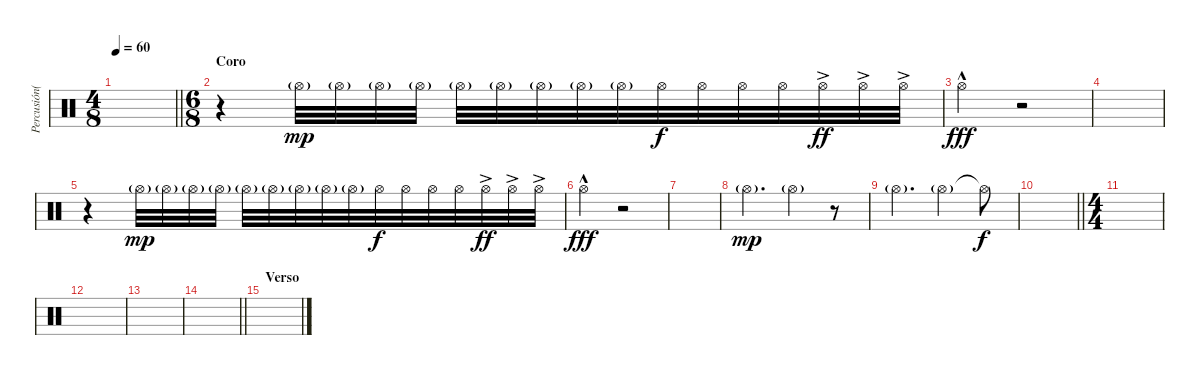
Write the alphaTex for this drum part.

\track ("Percusión(Sebastián)" "Percusión(") {instrument percussion}
\staff {score}
\articulation defaults
\ts (4 8)
\section ("" "")
\tempo 60
\clef neutral
\barLineRight lightlight
\ks c
|
\ts (6 8)
\section ("" "Coro")
r.4 "Hi-Hat (open)"{g}.32{dy mp} "Hi-Hat (open)"{g}.32 "Hi-Hat (open)"{g}.32 "Hi-Hat (open)"{g}.32 "Hi-Hat (open)"{g}.32 "Hi-Hat (open)"{g}.32 "Hi-Hat (open)"{g}.32 "Hi-Hat (open)"{g}.32 "Hi-Hat (open)"{g}.32 "Hi-Hat (open)".32{dy f} "Hi-Hat (open)".32 "Hi-Hat (open)".32 "Hi-Hat (open)".32 "Hi-Hat (open)"{ac}.32{dy ff} "Hi-Hat (open)"{ac}.32 "Hi-Hat (open)"{ac}.32 |
"Hi-Hat (open)"{hac}.4{dy fff} r.2 |
|
r.4 "Hi-Hat (open)"{g}.32{dy mp} "Hi-Hat (open)"{g}.32 "Hi-Hat (open)"{g}.32 "Hi-Hat (open)"{g}.32 "Hi-Hat (open)"{g}.32 "Hi-Hat (open)"{g}.32 "Hi-Hat (open)"{g}.32 "Hi-Hat (open)"{g}.32 "Hi-Hat (open)"{g}.32 "Hi-Hat (open)".32{dy f} "Hi-Hat (open)".32 "Hi-Hat (open)".32 "Hi-Hat (open)".32 "Hi-Hat (open)"{ac}.32{dy ff} "Hi-Hat (open)"{ac}.32 "Hi-Hat (open)"{ac}.32 |
"Hi-Hat (open)"{hac}.4{dy fff} r.2 |
|
"Hi-Hat (open)"{g}.4{d dy mp} "Hi-Hat (open)"{g}.4 r.8 |
"Hi-Hat (open)"{g}.4{d} "Hi-Hat (open)"{g}.4 "Hi-Hat (open)"{t}.8{dy f} |
\barLineRight lightlight
|
\ts (4 4)
\section ("" "")
|
|
|
\barLineRight lightlight
|
\section ("" "Verso")
